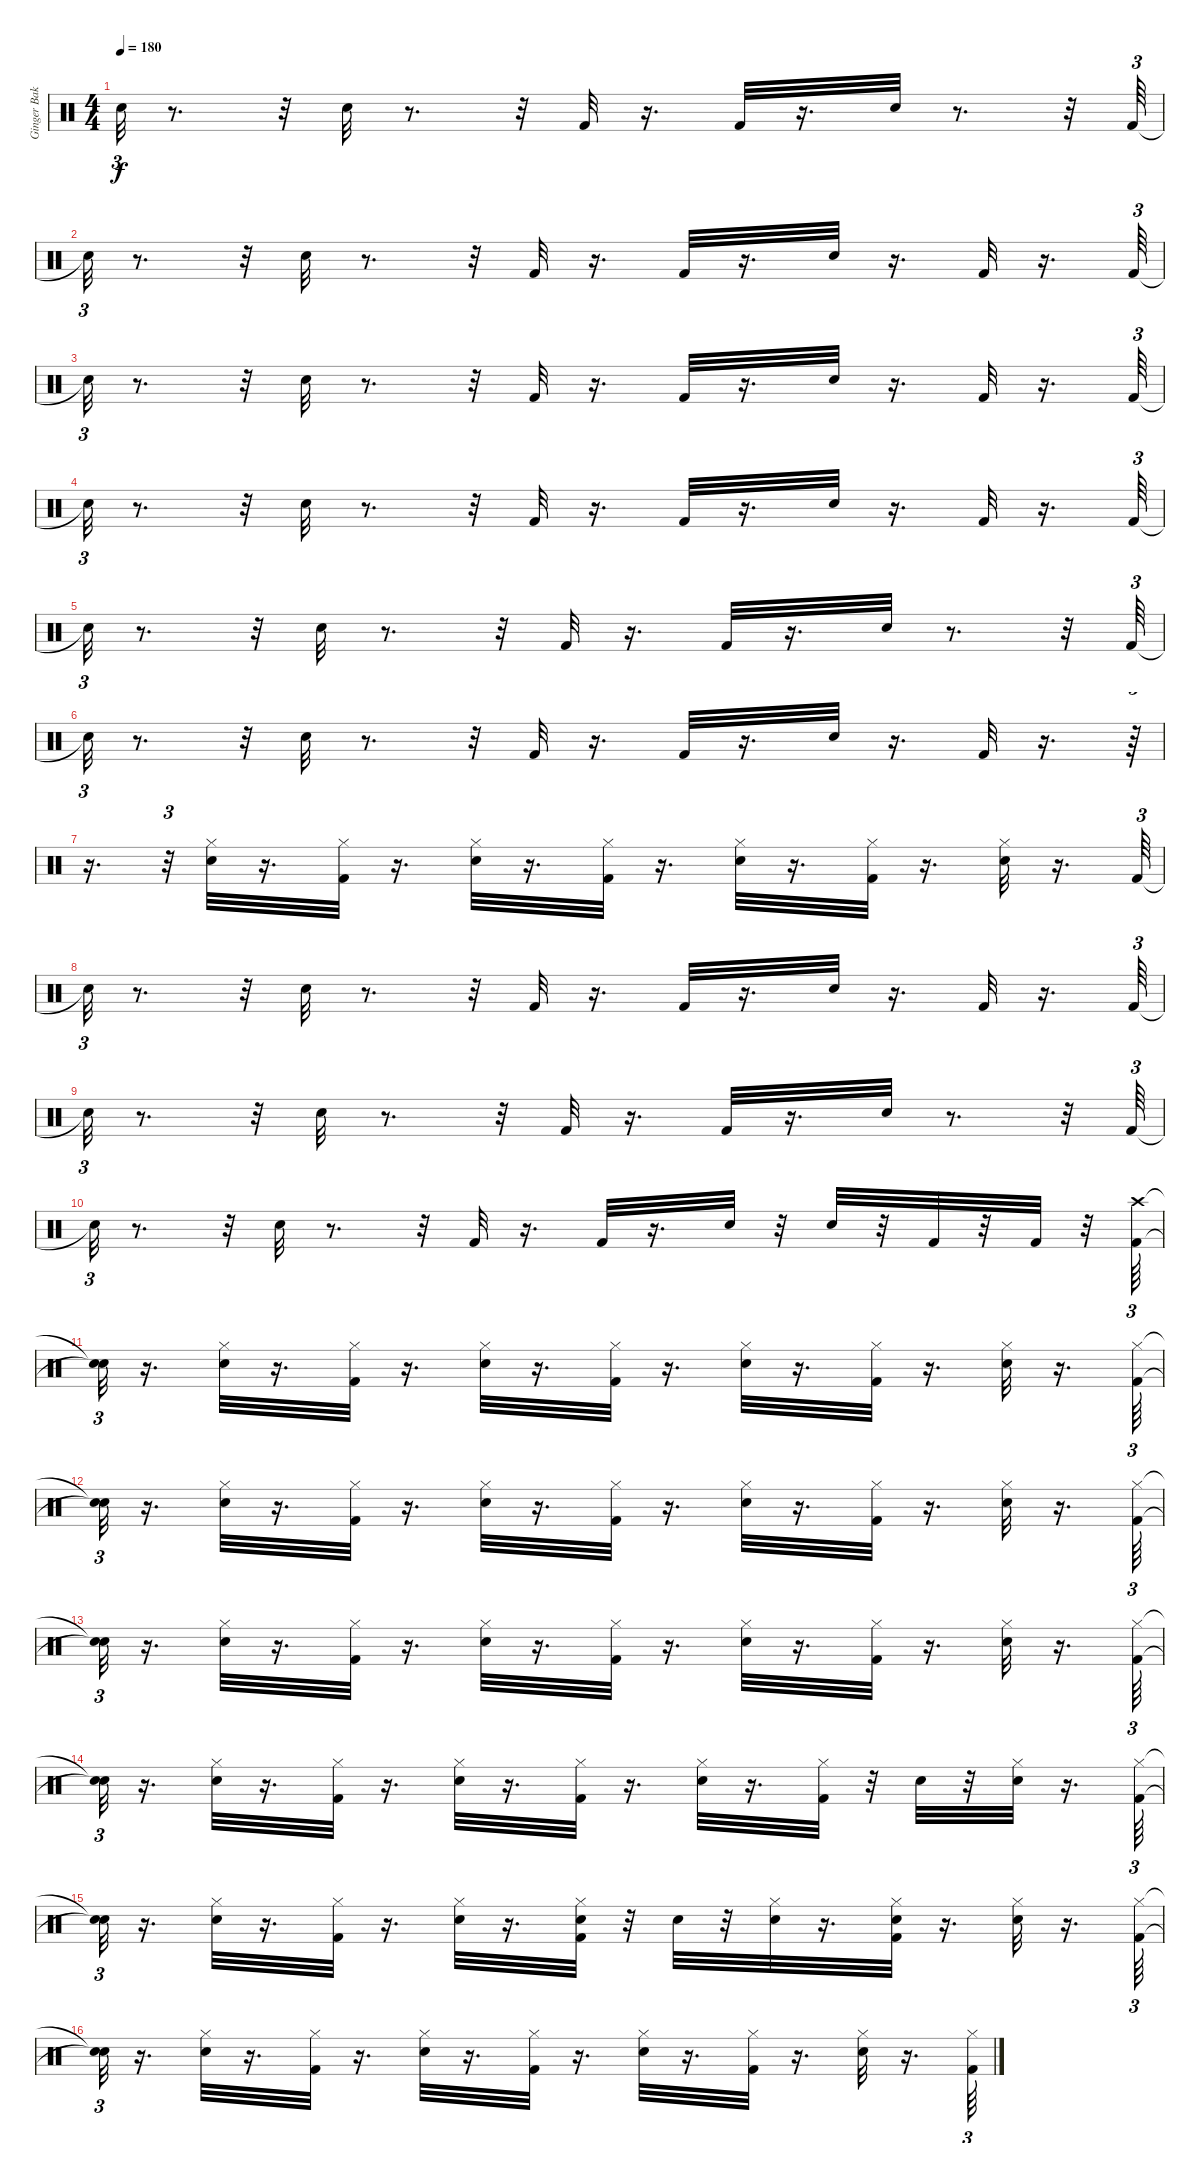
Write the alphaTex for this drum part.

\track ("Ginger Baker" "Ginger Bak") {instrument percussion}
\staff {score}
\articulation defaults
\ts (4 4)
\tempo 180
\clef neutral
\ks c "Snare (hit)"{t}.32{tu (3 2) dy f}
r.8{d} r.32 "Snare (hit) 2".32 r.8{d} r.32 "Kick (hit) 2".32 r.16{d} "Kick (hit) 2".32 r.16{d} "Snare (hit) 2".32 r.8{d} r.32 "Kick (hit) 2".64{tu (3 2)} |
"Snare (hit)"{t}.32{tu (3 2)} r.8{d} r.32 "Snare (hit) 2".32 r.8{d} r.32 "Kick (hit) 2".32 r.16{d} "Kick (hit) 2".32 r.16{d} "Snare (hit) 2".32 r.16{d} "Kick (hit) 2".32 r.16{d} "Kick (hit) 2".64{tu (3 2)} |
"Snare (hit)"{t}.32{tu (3 2)} r.8{d} r.32 "Snare (hit) 2".32 r.8{d} r.32 "Kick (hit) 2".32 r.16{d} "Kick (hit) 2".32 r.16{d} "Snare (hit) 2".32 r.16{d} "Kick (hit) 2".32 r.16{d} "Kick (hit) 2".64{tu (3 2)} |
"Snare (hit)"{t}.32{tu (3 2)} r.8{d} r.32 "Snare (hit) 2".32 r.8{d} r.32 "Kick (hit) 2".32 r.16{d} "Kick (hit) 2".32 r.16{d} "Snare (hit) 2".32 r.16{d} "Kick (hit) 2".32 r.16{d} "Kick (hit) 2".64{tu (3 2)} |
"Snare (hit)"{t}.32{tu (3 2)} r.8{d} r.32 "Snare (hit) 2".32 r.8{d} r.32 "Kick (hit) 2".32 r.16{d} "Kick (hit) 2".32 r.16{d} "Snare (hit) 2".32 r.8{d} r.32 "Kick (hit) 2".64{tu (3 2)} |
"Snare (hit)"{t}.32{tu (3 2)} r.8{d} r.32 "Snare (hit) 2".32 r.8{d} r.32 "Kick (hit) 2".32 r.16{d} "Kick (hit) 2".32 r.16{d} "Snare (hit) 2".32 r.16{d} "Kick (hit) 2".32 r.16{d} r.64{tu (3 2)} |
r.16{d} r.32{tu (3 2)} ("Hi-Hat (closed)" "Snare (hit) 2").32 r.16{d} ("Hi-Hat (closed)" "Kick (hit) 2").32 r.16{d} ("Hi-Hat (closed)" "Snare (hit) 2").32 r.16{d} ("Hi-Hat (closed)" "Kick (hit) 2").32 r.16{d} ("Hi-Hat (closed)" "Snare (hit) 2").32 r.16{d} ("Hi-Hat (closed)" "Kick (hit) 2").32 r.16{d} ("Snare (hit) 2" "Hi-Hat (closed)").32 r.16{d} "Kick (hit) 2".64{tu (3 2)} |
"Snare (hit)"{t}.32{tu (3 2)} r.8{d} r.32 "Snare (hit) 2".32 r.8{d} r.32 "Kick (hit) 2".32 r.16{d} "Kick (hit) 2".32 r.16{d} "Snare (hit) 2".32 r.16{d} "Kick (hit) 2".32 r.16{d} "Kick (hit) 2".64{tu (3 2)} |
"Snare (hit)"{t}.32{tu (3 2)} r.8{d} r.32 "Snare (hit) 2".32 r.8{d} r.32 "Kick (hit) 2".32 r.16{d} "Kick (hit) 2".32 r.16{d} "Snare (hit) 2".32 r.8{d} r.32 "Kick (hit) 2".64{tu (3 2)} |
"Snare (hit)"{t}.32{tu (3 2)} r.8{d} r.32 "Snare (hit) 2".32 r.8{d} r.32 "Kick (hit) 2".32 r.16{d} "Kick (hit) 2".32 r.16{d} "Snare (hit) 2".32 r.32 "Snare (hit) 2".32 r.32 "Kick (hit) 2".32 r.32 "Kick (hit) 2".32 r.32 ("Crash high (hit)" "Kick (hit) 2").64{tu (3 2)} |
("Snare (hit)"{t} "Snare (hit)"{t}).32{tu (3 2)} r.16{d} ("Snare (hit) 2" "Hi-Hat (closed)").32 r.16{d} ("Kick (hit) 2" "Hi-Hat (closed)").32 r.16{d} ("Snare (hit) 2" "Hi-Hat (closed)").32 r.16{d} ("Hi-Hat (closed)" "Kick (hit) 2").32 r.16{d} ("Hi-Hat (closed)" "Snare (hit) 2").32 r.16{d} ("Kick (hit) 2" "Hi-Hat (closed)").32 r.16{d} ("Hi-Hat (closed)" "Snare (hit) 2").32 r.16{d} ("Hi-Hat (closed)" "Kick (hit) 2").64{tu (3 2)} |
("Snare (hit)"{t} "Snare (hit)"{t}).32{tu (3 2)} r.16{d} ("Hi-Hat (closed)" "Snare (hit) 2").32 r.16{d} ("Hi-Hat (closed)" "Kick (hit) 2").32 r.16{d} ("Hi-Hat (closed)" "Snare (hit) 2").32 r.16{d} ("Hi-Hat (closed)" "Kick (hit) 2").32 r.16{d} ("Hi-Hat (closed)" "Snare (hit) 2").32 r.16{d} ("Hi-Hat (closed)" "Kick (hit) 2").32 r.16{d} ("Snare (hit) 2" "Hi-Hat (closed)").32 r.16{d} ("Hi-Hat (closed)" "Kick (hit) 2").64{tu (3 2)} |
("Snare (hit)"{t} "Snare (hit)"{t}).32{tu (3 2)} r.16{d} ("Hi-Hat (closed)" "Snare (hit) 2").32 r.16{d} ("Hi-Hat (closed)" "Kick (hit) 2").32 r.16{d} ("Hi-Hat (closed)" "Snare (hit) 2").32 r.16{d} ("Hi-Hat (closed)" "Kick (hit) 2").32 r.16{d} ("Hi-Hat (closed)" "Snare (hit) 2").32 r.16{d} ("Hi-Hat (closed)" "Kick (hit) 2").32 r.16{d} ("Snare (hit) 2" "Hi-Hat (closed)").32 r.16{d} ("Hi-Hat (closed)" "Kick (hit) 2").64{tu (3 2)} |
("Snare (hit)"{t} "Snare (hit)"{t}).32{tu (3 2)} r.16{d} ("Hi-Hat (closed)" "Snare (hit) 2").32 r.16{d} ("Hi-Hat (closed)" "Kick (hit) 2").32 r.16{d} ("Hi-Hat (closed)" "Snare (hit) 2").32 r.16{d} ("Hi-Hat (closed)" "Kick (hit) 2").32 r.16{d} ("Hi-Hat (closed)" "Snare (hit) 2").32 r.16{d} ("Hi-Hat (closed)" "Kick (hit) 2").32 r.32 "Snare (hit) 2".32 r.32 ("Snare (hit) 2" "Hi-Hat (closed)").32 r.16{d} ("Hi-Hat (closed)" "Kick (hit) 2").64{tu (3 2)} |
("Snare (hit)"{t} "Snare (hit)"{t}).32{tu (3 2)} r.16{d} ("Hi-Hat (closed)" "Snare (hit) 2").32 r.16{d} ("Hi-Hat (closed)" "Kick (hit) 2").32 r.16{d} ("Hi-Hat (closed)" "Snare (hit) 2").32 r.16{d} ("Snare (hit) 2" "Hi-Hat (closed)" "Kick (hit) 2").32 r.32 "Snare (hit) 2".32 r.32 ("Hi-Hat (closed)" "Snare (hit) 2").32 r.16{d} ("Snare (hit) 2" "Hi-Hat (closed)" "Kick (hit) 2").32 r.16{d} ("Snare (hit) 2" "Hi-Hat (closed)").32 r.16{d} ("Hi-Hat (closed)" "Kick (hit) 2").64{tu (3 2)} |
("Snare (hit)"{t} "Snare (hit)"{t}).32{tu (3 2)} r.16{d} ("Hi-Hat (closed)" "Snare (hit) 2").32 r.16{d} ("Hi-Hat (closed)" "Kick (hit) 2").32 r.16{d} ("Hi-Hat (closed)" "Snare (hit) 2").32 r.16{d} ("Hi-Hat (closed)" "Kick (hit) 2").32 r.16{d} ("Hi-Hat (closed)" "Snare (hit) 2").32 r.16{d} ("Hi-Hat (closed)" "Kick (hit) 2").32 r.16{d} ("Snare (hit) 2" "Hi-Hat (closed)").32 r.16{d} ("Hi-Hat (closed)" "Kick (hit) 2").64{tu (3 2)}
